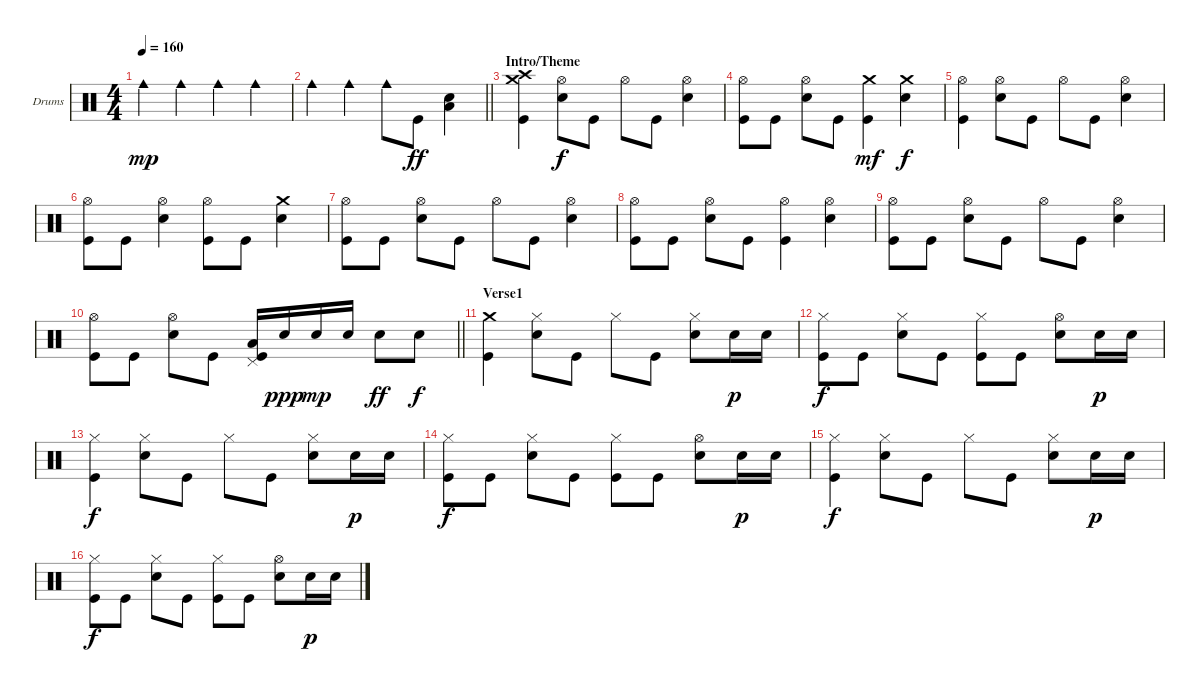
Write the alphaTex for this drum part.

\bracketExtendMode groupsimilarinstruments
\firstSystemTrackNameOrientation horizontal
\otherSystemsTrackNameOrientation horizontal
\track ("Jean-Paul Gaster" "Drums") {instrument percussion}
\staff {score}
\articulation defaults
\ts (4 4)
\beaming (8 2 2 2 2)
\tempo 160
\clef neutral
\ks c "Cowbell medium (hit)".4{dy mp} "Cowbell medium (hit)".4 "Cowbell medium (hit)".4 "Cowbell medium (hit)".4
|
\barLineRight lightlight "Cowbell medium (hit)".4 "Cowbell medium (hit)".4 "Cowbell medium (hit)".8 "Kick (hit)".8{dy ff}
("Snare (hit) 2" "Low Tom (hit)").4 |
\section ("" "Intro/Theme")
("Crash high (hit)" "Crash medium (hit)" "Kick (hit)").4 ("Hi-Hat (open)" "Snare (hit) 2").8{dy f} "Kick (hit)".8 "Hi-Hat (open)".8 "Kick (hit)".8 ("Hi-Hat (open)" "Snare (hit) 2").4 |
("Hi-Hat (open)" "Kick (hit)").8 "Kick (hit)".8 ("Hi-Hat (open)" "Snare (hit) 2").8 "Kick (hit)".8 ("Crash medium (hit)" "Kick (hit)").4{dy mf} ("Crash medium (hit)" "Snare (hit) 2").4{dy f} |
("Hi-Hat (open)" "Kick (hit)").4 ("Hi-Hat (open)" "Snare (hit) 2").8 "Kick (hit)".8 "Hi-Hat (open)".8 "Kick (hit)".8 ("Hi-Hat (open)" "Snare (hit) 2").4 |
("Hi-Hat (open)" "Kick (hit)").8 "Kick (hit)".8 ("Hi-Hat (open)" "Snare (hit) 2").4 ("Hi-Hat (open)" "Kick (hit)").8 "Kick (hit)".8 ("Crash medium (hit)" "Snare (hit) 2").4 |
("Hi-Hat (open)" "Kick (hit)").8 "Kick (hit)".8 ("Hi-Hat (open)" "Snare (hit) 2").8 "Kick (hit)".8 "Hi-Hat (open)".8 "Kick (hit)".8 ("Hi-Hat (open)" "Snare (hit) 2").4 |
("Hi-Hat (open)" "Kick (hit)").8 "Kick (hit)".8 ("Hi-Hat (open)" "Snare (hit) 2").8 "Kick (hit)".8 ("Hi-Hat (open)" "Kick (hit)").4 ("Hi-Hat (open)" "Snare (hit) 2").4 |
("Hi-Hat (open)" "Kick (hit)").8 "Kick (hit)".8 ("Hi-Hat (open)" "Snare (hit) 2").8 "Kick (hit)".8 "Hi-Hat (open)".8 "Kick (hit)".8 ("Hi-Hat (open)" "Snare (hit) 2").4 |
\barLineRight lightlight
("Hi-Hat (open)" "Kick (hit)").8 "Kick (hit)".8 ("Hi-Hat (open)" "Snare (hit) 2").8 "Kick (hit)".8 ("Pedal Hi-Hat (hit)" "Low Tom (hit)" "Kick (hit)").16 "Snare (hit) 2".16{dy ppp} "Snare (hit) 2".16{dy mp} "Snare (hit) 2".16 "Snare (hit) 2".8{dy ff} "Snare (hit) 2".8{dy f} |
\section ("" "Verse1")
("Crash medium (hit)" "Kick (hit)").4 ("Hi-Hat (closed)" "Snare (hit) 2").8 "Kick (hit)".8 "Hi-Hat (closed)".8 "Kick (hit)".8 ("Hi-Hat (closed)" "Snare (hit) 2").8 "Snare (hit) 2".16{dy p} "Snare (hit) 2".16 |
("Hi-Hat (closed)" "Kick (hit)").8{dy f} "Kick (hit)".8 ("Hi-Hat (closed)" "Snare (hit) 2").8 "Kick (hit)".8 ("Hi-Hat (closed)" "Kick (hit)").8 "Kick (hit)".8 ("Hi-Hat (open)" "Snare (hit) 2").8 "Snare (hit) 2".16{dy p} "Snare (hit) 2".16 |
("Hi-Hat (closed)" "Kick (hit)").4{dy f} ("Hi-Hat (closed)" "Snare (hit) 2").8 "Kick (hit)".8 "Hi-Hat (closed)".8 "Kick (hit)".8 ("Hi-Hat (closed)" "Snare (hit) 2").8 "Snare (hit) 2".16{dy p} "Snare (hit) 2".16 |
("Hi-Hat (closed)" "Kick (hit)").8{dy f} "Kick (hit)".8 ("Hi-Hat (closed)" "Snare (hit) 2").8 "Kick (hit)".8 ("Hi-Hat (closed)" "Kick (hit)").8 "Kick (hit)".8 ("Hi-Hat (open)" "Snare (hit) 2").8 "Snare (hit) 2".16{dy p} "Snare (hit) 2".16 |
("Hi-Hat (closed)" "Kick (hit)").4{dy f} ("Hi-Hat (closed)" "Snare (hit) 2").8 "Kick (hit)".8 "Hi-Hat (closed)".8 "Kick (hit)".8 ("Hi-Hat (closed)" "Snare (hit) 2").8 "Snare (hit) 2".16{dy p} "Snare (hit) 2".16 |
("Hi-Hat (closed)" "Kick (hit)").8{dy f} "Kick (hit)".8 ("Hi-Hat (closed)" "Snare (hit) 2").8 "Kick (hit)".8 ("Hi-Hat (closed)" "Kick (hit)").8 "Kick (hit)".8 ("Hi-Hat (open)" "Snare (hit) 2").8 "Snare (hit) 2".16{dy p} "Snare (hit) 2".16
